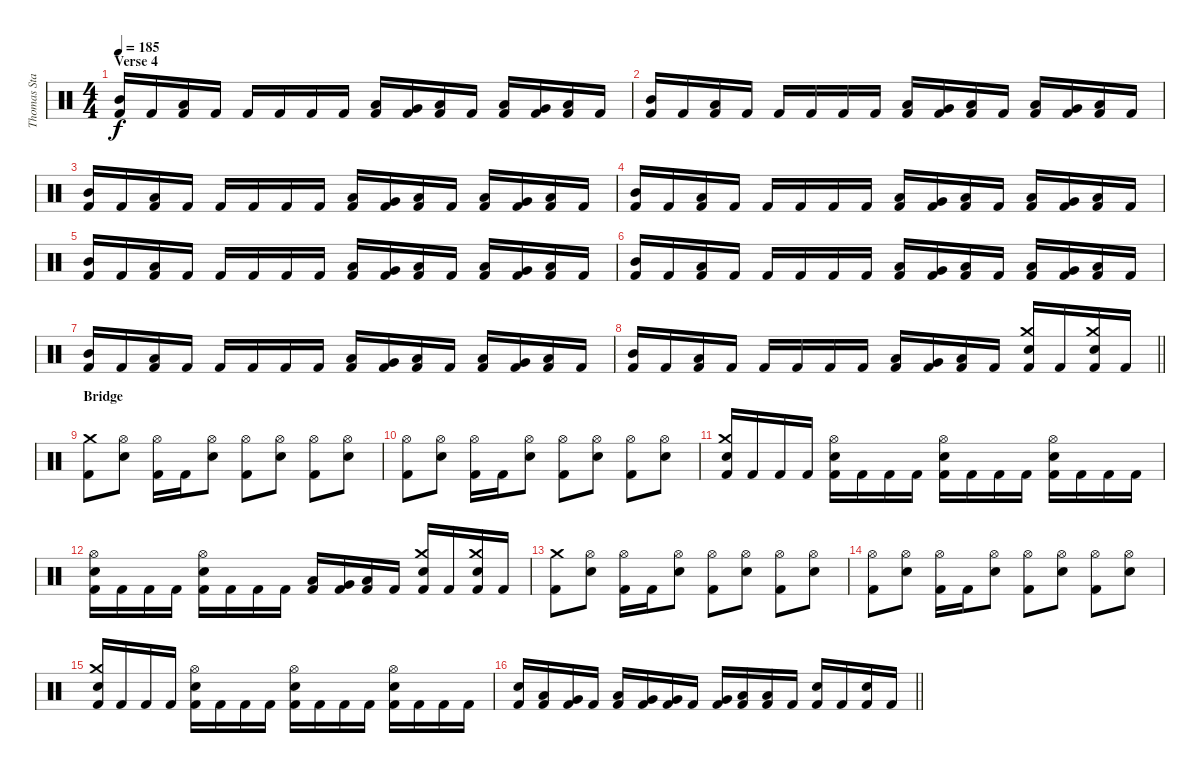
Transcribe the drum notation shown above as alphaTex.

\track ("Thomas Stauch" "Thomas Sta") {instrument percussion}
\staff {score}
\articulation defaults
\ts (4 4)
\section ("" "Verse 4")
\tempo 185
\clef neutral
\ks c
("Mid Tom (hit)" "Kick (hit) 2").16{dy f} "Kick (hit) 2".16 ("Low Tom (hit)" "Kick (hit) 2").16 "Kick (hit) 2".16 "Kick (hit) 2".16 "Kick (hit) 2".16 "Kick (hit) 2".16 "Kick (hit) 2".16 ("Low Tom (hit)" "Kick (hit) 2").16 ("Very Low Tom (hit)" "Kick (hit) 2").16 ("Low Floor Tom (hit)" "Kick (hit) 2").16 "Kick (hit) 2".16 ("Low Tom (hit)" "Kick (hit) 2").16 ("Very Low Tom (hit)" "Kick (hit) 2").16 ("Low Floor Tom (hit)" "Kick (hit) 2").16 "Kick (hit) 2".16 |
("Mid Tom (hit)" "Kick (hit) 2").16 "Kick (hit) 2".16 ("Low Tom (hit)" "Kick (hit) 2").16 "Kick (hit) 2".16 "Kick (hit) 2".16 "Kick (hit) 2".16 "Kick (hit) 2".16 "Kick (hit) 2".16 ("Low Tom (hit)" "Kick (hit) 2").16 ("Very Low Tom (hit)" "Kick (hit) 2").16 ("Low Floor Tom (hit)" "Kick (hit) 2").16 "Kick (hit) 2".16 ("Low Tom (hit)" "Kick (hit) 2").16 ("Very Low Tom (hit)" "Kick (hit) 2").16 ("Low Floor Tom (hit)" "Kick (hit) 2").16 "Kick (hit) 2".16 |
("Mid Tom (hit)" "Kick (hit) 2").16 "Kick (hit) 2".16 ("Low Tom (hit)" "Kick (hit) 2").16 "Kick (hit) 2".16 "Kick (hit) 2".16 "Kick (hit) 2".16 "Kick (hit) 2".16 "Kick (hit) 2".16 ("Low Tom (hit)" "Kick (hit) 2").16 ("Very Low Tom (hit)" "Kick (hit) 2").16 ("Low Floor Tom (hit)" "Kick (hit) 2").16 "Kick (hit) 2".16 ("Low Tom (hit)" "Kick (hit) 2").16 ("Very Low Tom (hit)" "Kick (hit) 2").16 ("Low Floor Tom (hit)" "Kick (hit) 2").16 "Kick (hit) 2".16 |
("Mid Tom (hit)" "Kick (hit) 2").16 "Kick (hit) 2".16 ("Low Tom (hit)" "Kick (hit) 2").16 "Kick (hit) 2".16 "Kick (hit) 2".16 "Kick (hit) 2".16 "Kick (hit) 2".16 "Kick (hit) 2".16 ("Low Tom (hit)" "Kick (hit) 2").16 ("Very Low Tom (hit)" "Kick (hit) 2").16 ("Low Floor Tom (hit)" "Kick (hit) 2").16 "Kick (hit) 2".16 ("Low Tom (hit)" "Kick (hit) 2").16 ("Very Low Tom (hit)" "Kick (hit) 2").16 ("Low Floor Tom (hit)" "Kick (hit) 2").16 "Kick (hit) 2".16 |
("Mid Tom (hit)" "Kick (hit) 2").16 "Kick (hit) 2".16 ("Low Tom (hit)" "Kick (hit) 2").16 "Kick (hit) 2".16 "Kick (hit) 2".16 "Kick (hit) 2".16 "Kick (hit) 2".16 "Kick (hit) 2".16 ("Low Tom (hit)" "Kick (hit) 2").16 ("Very Low Tom (hit)" "Kick (hit) 2").16 ("Low Floor Tom (hit)" "Kick (hit) 2").16 "Kick (hit) 2".16 ("Low Tom (hit)" "Kick (hit) 2").16 ("Very Low Tom (hit)" "Kick (hit) 2").16 ("Low Floor Tom (hit)" "Kick (hit) 2").16 "Kick (hit) 2".16 |
("Mid Tom (hit)" "Kick (hit) 2").16 "Kick (hit) 2".16 ("Low Tom (hit)" "Kick (hit) 2").16 "Kick (hit) 2".16 "Kick (hit) 2".16 "Kick (hit) 2".16 "Kick (hit) 2".16 "Kick (hit) 2".16 ("Low Tom (hit)" "Kick (hit) 2").16 ("Very Low Tom (hit)" "Kick (hit) 2").16 ("Low Floor Tom (hit)" "Kick (hit) 2").16 "Kick (hit) 2".16 ("Low Tom (hit)" "Kick (hit) 2").16 ("Very Low Tom (hit)" "Kick (hit) 2").16 ("Low Floor Tom (hit)" "Kick (hit) 2").16 "Kick (hit) 2".16 |
("Mid Tom (hit)" "Kick (hit) 2").16 "Kick (hit) 2".16 ("Low Tom (hit)" "Kick (hit) 2").16 "Kick (hit) 2".16 "Kick (hit) 2".16 "Kick (hit) 2".16 "Kick (hit) 2".16 "Kick (hit) 2".16 ("Low Tom (hit)" "Kick (hit) 2").16 ("Very Low Tom (hit)" "Kick (hit) 2").16 ("Low Floor Tom (hit)" "Kick (hit) 2").16 "Kick (hit) 2".16 ("Low Tom (hit)" "Kick (hit) 2").16 ("Very Low Tom (hit)" "Kick (hit) 2").16 ("Low Floor Tom (hit)" "Kick (hit) 2").16 "Kick (hit) 2".16 |
\barLineRight lightlight
("Mid Tom (hit)" "Kick (hit) 2").16 "Kick (hit) 2".16 ("Low Tom (hit)" "Kick (hit) 2").16 "Kick (hit) 2".16 "Kick (hit) 2".16 "Kick (hit) 2".16 "Kick (hit) 2".16 "Kick (hit) 2".16 ("Low Tom (hit)" "Kick (hit) 2").16 ("Very Low Tom (hit)" "Kick (hit) 2").16 ("Low Floor Tom (hit)" "Kick (hit) 2").16 "Kick (hit) 2".16 ("Crash medium (hit)" "Electric Snare (hit)" "Kick (hit) 2").16 "Kick (hit) 2".16 ("Crash medium (hit)" "Electric Snare (hit)" "Kick (hit) 2").16 "Kick (hit) 2".16 |
\section ("" "Bridge")
("Crash medium (hit)" "Kick (hit) 2").8 ("Hi-Hat (open)" "Electric Snare (hit)").8 ("Hi-Hat (open)" "Kick (hit) 2").16 "Kick (hit) 2".16 ("Hi-Hat (open)" "Electric Snare (hit)").8 ("Hi-Hat (open)" "Kick (hit) 2").8 ("Hi-Hat (open)" "Electric Snare (hit)").8 ("Hi-Hat (open)" "Kick (hit) 2").8 ("Hi-Hat (open)" "Electric Snare (hit)").8 |
("Hi-Hat (open)" "Kick (hit) 2").8 ("Hi-Hat (open)" "Electric Snare (hit)").8 ("Hi-Hat (open)" "Kick (hit) 2").16 "Kick (hit) 2".16 ("Hi-Hat (open)" "Electric Snare (hit)").8 ("Hi-Hat (open)" "Kick (hit) 2").8 ("Hi-Hat (open)" "Electric Snare (hit)").8 ("Hi-Hat (open)" "Kick (hit) 2").8 ("Hi-Hat (open)" "Electric Snare (hit)").8 |
("Crash medium (hit)" "Electric Snare (hit)" "Kick (hit) 2").16 "Kick (hit) 2".16 "Kick (hit) 2".16 "Kick (hit) 2".16 ("Hi-Hat (open)" "Electric Snare (hit)" "Kick (hit) 2").16 "Kick (hit) 2".16 "Kick (hit) 2".16 "Kick (hit) 2".16 ("Hi-Hat (open)" "Electric Snare (hit)" "Kick (hit) 2").16 "Kick (hit) 2".16 "Kick (hit) 2".16 "Kick (hit) 2".16 ("Hi-Hat (open)" "Electric Snare (hit)" "Kick (hit) 2").16 "Kick (hit) 2".16 "Kick (hit) 2".16 "Kick (hit) 2".16 |
("Hi-Hat (open)" "Electric Snare (hit)" "Kick (hit) 2").16 "Kick (hit) 2".16 "Kick (hit) 2".16 "Kick (hit) 2".16 ("Hi-Hat (open)" "Electric Snare (hit)" "Kick (hit) 2").16 "Kick (hit) 2".16 "Kick (hit) 2".16 "Kick (hit) 2".16 ("Low Tom (hit)" "Kick (hit) 2").16 ("Very Low Tom (hit)" "Kick (hit) 2").16 ("Low Floor Tom (hit)" "Kick (hit) 2").16 "Kick (hit) 2".16 ("Crash medium (hit)" "Electric Snare (hit)" "Kick (hit) 2").16 "Kick (hit) 2".16 ("Crash medium (hit)" "Electric Snare (hit)" "Kick (hit) 2").16 "Kick (hit) 2".16 |
("Crash medium (hit)" "Kick (hit) 2").8 ("Hi-Hat (open)" "Electric Snare (hit)").8 ("Hi-Hat (open)" "Kick (hit) 2").16 "Kick (hit) 2".16 ("Hi-Hat (open)" "Electric Snare (hit)").8 ("Hi-Hat (open)" "Kick (hit) 2").8 ("Hi-Hat (open)" "Electric Snare (hit)").8 ("Hi-Hat (open)" "Kick (hit) 2").8 ("Hi-Hat (open)" "Electric Snare (hit)").8 |
("Hi-Hat (open)" "Kick (hit) 2").8 ("Hi-Hat (open)" "Electric Snare (hit)").8 ("Hi-Hat (open)" "Kick (hit) 2").16 "Kick (hit) 2".16 ("Hi-Hat (open)" "Electric Snare (hit)").8 ("Hi-Hat (open)" "Kick (hit) 2").8 ("Hi-Hat (open)" "Electric Snare (hit)").8 ("Hi-Hat (open)" "Kick (hit) 2").8 ("Hi-Hat (open)" "Electric Snare (hit)").8 |
("Crash medium (hit)" "Electric Snare (hit)" "Kick (hit) 2").16 "Kick (hit) 2".16 "Kick (hit) 2".16 "Kick (hit) 2".16 ("Hi-Hat (open)" "Electric Snare (hit)" "Kick (hit) 2").16 "Kick (hit) 2".16 "Kick (hit) 2".16 "Kick (hit) 2".16 ("Hi-Hat (open)" "Electric Snare (hit)" "Kick (hit) 2").16 "Kick (hit) 2".16 "Kick (hit) 2".16 "Kick (hit) 2".16 ("Hi-Hat (open)" "Electric Snare (hit)" "Kick (hit) 2").16 "Kick (hit) 2".16 "Kick (hit) 2".16 "Kick (hit) 2".16 |
\barLineRight lightlight
("Electric Snare (hit)" "Kick (hit) 2").16 ("Low Tom (hit)" "Kick (hit) 2").16 ("Very Low Tom (hit)" "Kick (hit) 2").16 "Kick (hit) 2".16 ("Low Tom (hit)" "Kick (hit) 2").16 ("Very Low Tom (hit)" "Kick (hit) 2").16 ("Very Low Tom (hit)" "Kick (hit) 2").16 "Kick (hit) 2".16 ("Very Low Tom (hit)" "Kick (hit) 2").16 ("Low Floor Tom (hit)" "Kick (hit) 2").16 ("Low Floor Tom (hit)" "Kick (hit) 2").16 "Kick (hit) 2".16 ("Electric Snare (hit)" "Kick (hit) 2").16 "Kick (hit) 2".16 ("Electric Snare (hit)" "Kick (hit) 2").16 "Kick (hit) 2".16
